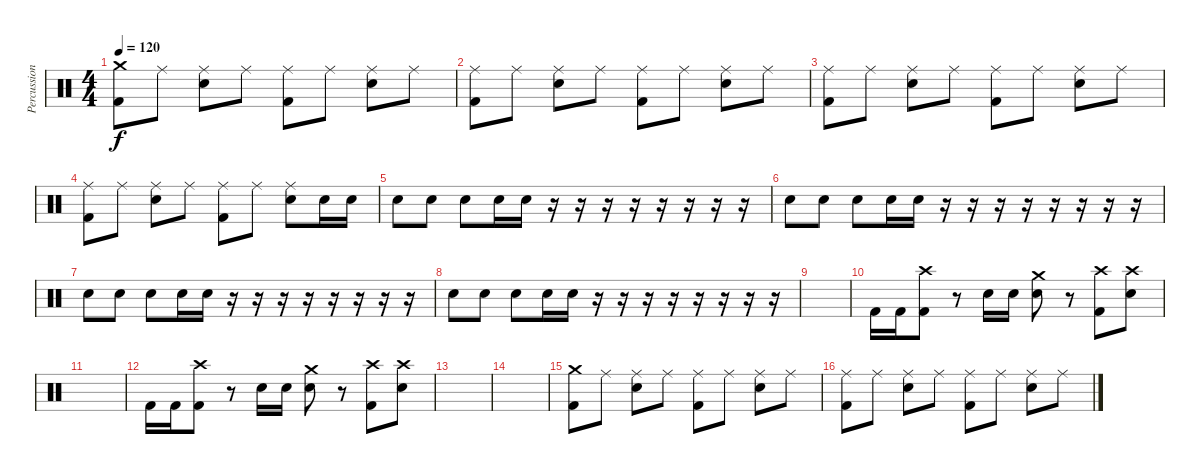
\track ("Percussions" "Percussion") {instrument percussion}
\staff {score}
\articulation defaults
\ts (4 4)
\tempo 120
\clef neutral
\ks c
("Crash medium (hit)" "Kick (hit) 2").8{dy f} "Ride (middle)".8 ("Ride (middle)" "Electric Snare (hit)").8 "Ride (middle)".8 ("Ride (middle)" "Kick (hit) 2").8 "Ride (middle)".8 ("Ride (middle)" "Electric Snare (hit)").8 "Ride (middle)".8 |
("Ride (middle)" "Kick (hit) 2").8 "Ride (middle)".8 ("Ride (middle)" "Electric Snare (hit)").8 "Ride (middle)".8 ("Ride (middle)" "Kick (hit) 2").8 "Ride (middle)".8 ("Ride (middle)" "Electric Snare (hit)").8 "Ride (middle)".8 |
("Ride (middle)" "Kick (hit) 2").8 "Ride (middle)".8 ("Ride (middle)" "Electric Snare (hit)").8 "Ride (middle)".8 ("Ride (middle)" "Kick (hit) 2").8 "Ride (middle)".8 ("Ride (middle)" "Electric Snare (hit)").8 "Ride (middle)".8 |
("Ride (middle)" "Kick (hit) 2").8 "Ride (middle)".8 ("Ride (middle)" "Electric Snare (hit)").8 "Ride (middle)".8 ("Ride (middle)" "Kick (hit) 2").8 "Ride (middle)".8 ("Ride (middle)" "Electric Snare (hit)").8 "Electric Snare (hit)".16 "Electric Snare (hit)".16 |
"Electric Snare (hit)".8 "Electric Snare (hit)".8 "Electric Snare (hit)".8 "Electric Snare (hit)".16 "Electric Snare (hit)".16 r.16 r.16 r.16 r.16 r.16 r.16 r.16 r.16 |
"Electric Snare (hit)".8 "Electric Snare (hit)".8 "Electric Snare (hit)".8 "Electric Snare (hit)".16 "Electric Snare (hit)".16 r.16 r.16 r.16 r.16 r.16 r.16 r.16 r.16 |
"Electric Snare (hit)".8 "Electric Snare (hit)".8 "Electric Snare (hit)".8 "Electric Snare (hit)".16 "Electric Snare (hit)".16 r.16 r.16 r.16 r.16 r.16 r.16 r.16 r.16 |
"Electric Snare (hit)".8 "Electric Snare (hit)".8 "Electric Snare (hit)".8 "Electric Snare (hit)".16 "Electric Snare (hit)".16 r.16 r.16 r.16 r.16 r.16 r.16 r.16 r.16 |
|
"Kick (hit) 2".16 "Kick (hit) 2".16 ("Crash high (hit)" "Kick (hit) 2").8 r.8 "Electric Snare (hit)".16 "Electric Snare (hit)".16 ("Crash medium (hit)" "Electric Snare (hit)").8 r.8 ("Crash high (hit)" "Kick (hit) 2").8 ("Crash high (hit)" "Electric Snare (hit)").8 |
|
"Kick (hit) 2".16 "Kick (hit) 2".16 ("Crash high (hit)" "Kick (hit) 2").8 r.8 "Electric Snare (hit)".16 "Electric Snare (hit)".16 ("Crash medium (hit)" "Electric Snare (hit)").8 r.8 ("Crash high (hit)" "Kick (hit) 2").8 ("Crash high (hit)" "Electric Snare (hit)").8 |
|
|
("Crash medium (hit)" "Kick (hit) 2").8 "Ride (middle)".8 ("Ride (middle)" "Electric Snare (hit)").8 "Ride (middle)".8 ("Ride (middle)" "Kick (hit) 2").8 "Ride (middle)".8 ("Ride (middle)" "Electric Snare (hit)").8 "Ride (middle)".8 |
("Ride (middle)" "Kick (hit) 2").8 "Ride (middle)".8 ("Ride (middle)" "Electric Snare (hit)").8 "Ride (middle)".8 ("Ride (middle)" "Kick (hit) 2").8 "Ride (middle)".8 ("Ride (middle)" "Electric Snare (hit)").8 "Ride (middle)".8
